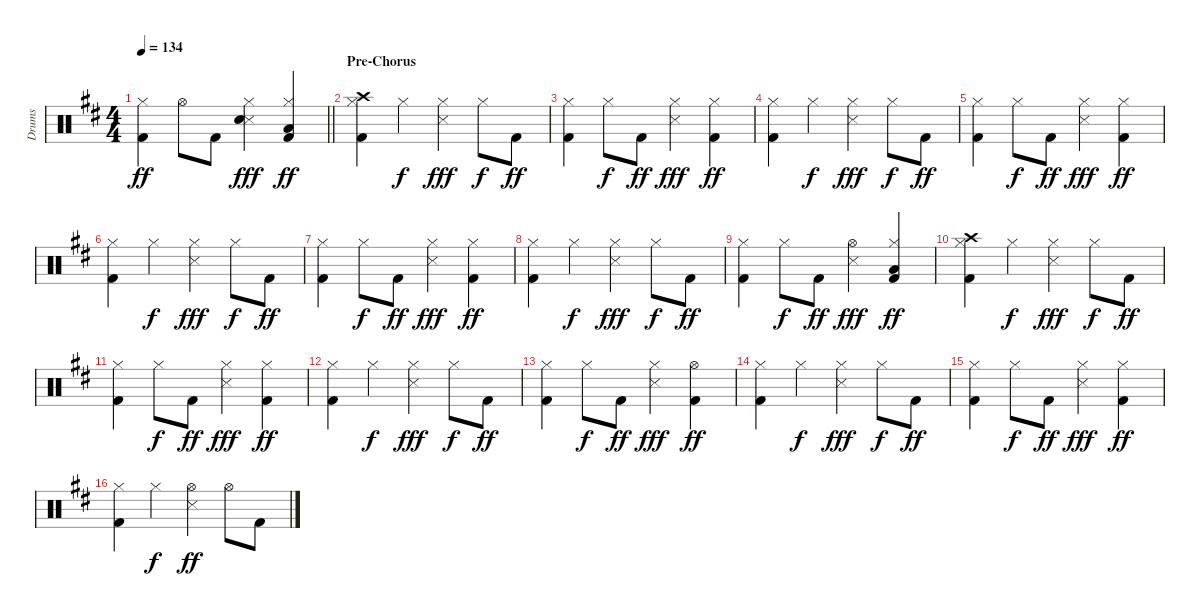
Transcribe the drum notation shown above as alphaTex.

\track ("Drums" "Drums") {instrument percussion}
\staff {score}
\articulation defaults
\ts (4 4)
\tempo 134
\clef neutral
\barLineRight lightlight
\ks d
("Kick (hit) 2" "Hi-Hat (closed)").4{dy ff} "Hi-Hat (open)".8 "Kick (hit) 2".8 ("Snare (side stick) 3" "Snare (hit) 2" "Hi-Hat (closed)").4{dy fff} ("Kick (hit) 2" "Hi-Hat (closed)" "Low Tom (hit)").4{dy ff} |
\section ("" "Pre-Chorus")
("Kick (hit) 2" "Hi-Hat (closed)" "Crash high (hit)").4 "Hi-Hat (closed)".4{dy f} ("Snare (side stick) 3" "Hi-Hat (closed)").4{dy fff} "Hi-Hat (closed)".8{dy f} "Kick (hit) 2".8{dy ff} |
("Kick (hit) 2" "Hi-Hat (closed)").4 "Hi-Hat (closed)".8{dy f} "Kick (hit) 2".8{dy ff} ("Snare (side stick) 3" "Hi-Hat (closed)").4{dy fff} ("Kick (hit) 2" "Hi-Hat (closed)").4{dy ff} |
("Kick (hit) 2" "Hi-Hat (closed)").4 "Hi-Hat (closed)".4{dy f} ("Snare (side stick) 3" "Hi-Hat (closed)").4{dy fff} "Hi-Hat (closed)".8{dy f} "Kick (hit) 2".8{dy ff} |
("Kick (hit) 2" "Hi-Hat (closed)").4 "Hi-Hat (closed)".8{dy f} "Kick (hit) 2".8{dy ff} ("Snare (side stick) 3" "Hi-Hat (closed)").4{dy fff} ("Kick (hit) 2" "Hi-Hat (closed)").4{dy ff} |
("Kick (hit) 2" "Hi-Hat (closed)").4 "Hi-Hat (closed)".4{dy f} ("Snare (side stick) 3" "Hi-Hat (closed)").4{dy fff} "Hi-Hat (closed)".8{dy f} "Kick (hit) 2".8{dy ff} |
("Kick (hit) 2" "Hi-Hat (closed)").4 "Hi-Hat (closed)".8{dy f} "Kick (hit) 2".8{dy ff} ("Snare (side stick) 3" "Hi-Hat (closed)").4{dy fff} ("Kick (hit) 2" "Hi-Hat (closed)").4{dy ff} |
("Kick (hit) 2" "Hi-Hat (closed)").4 "Hi-Hat (closed)".4{dy f} ("Snare (side stick) 3" "Hi-Hat (closed)").4{dy fff} "Hi-Hat (closed)".8{dy f} "Kick (hit) 2".8{dy ff} |
("Kick (hit) 2" "Hi-Hat (closed)").4 "Hi-Hat (closed)".8{dy f} "Kick (hit) 2".8{dy ff} ("Snare (side stick) 3" "Hi-Hat (open)").4{dy fff} ("Kick (hit) 2" "Hi-Hat (closed)" "Low Tom (hit)").4{dy ff} |
("Kick (hit) 2" "Hi-Hat (closed)" "Crash high (hit)").4 "Hi-Hat (closed)".4{dy f} ("Snare (side stick) 3" "Hi-Hat (closed)").4{dy fff} "Hi-Hat (closed)".8{dy f} "Kick (hit) 2".8{dy ff} |
("Kick (hit) 2" "Hi-Hat (closed)").4 "Hi-Hat (closed)".8{dy f} "Kick (hit) 2".8{dy ff} ("Snare (side stick) 3" "Hi-Hat (closed)").4{dy fff} ("Kick (hit) 2" "Hi-Hat (closed)").4{dy ff} |
("Kick (hit) 2" "Hi-Hat (closed)").4 "Hi-Hat (closed)".4{dy f} ("Snare (side stick) 3" "Hi-Hat (closed)").4{dy fff} "Hi-Hat (closed)".8{dy f} "Kick (hit) 2".8{dy ff} |
("Kick (hit) 2" "Hi-Hat (closed)").4 "Hi-Hat (closed)".8{dy f} "Kick (hit) 2".8{dy ff} ("Snare (side stick) 3" "Hi-Hat (closed)").4{dy fff} ("Kick (hit) 2" "Hi-Hat (open)").4{dy ff} |
("Kick (hit) 2" "Hi-Hat (closed)").4 "Hi-Hat (closed)".4{dy f} ("Snare (side stick) 3" "Hi-Hat (closed)").4{dy fff} "Hi-Hat (closed)".8{dy f} "Kick (hit) 2".8{dy ff} |
("Kick (hit) 2" "Hi-Hat (closed)").4 "Hi-Hat (closed)".8{dy f} "Kick (hit) 2".8{dy ff} ("Snare (side stick) 3" "Hi-Hat (closed)").4{dy fff} ("Kick (hit) 2" "Hi-Hat (closed)").4{dy ff} |
("Kick (hit) 2" "Hi-Hat (closed)").4 "Hi-Hat (closed)".4{dy f} ("Snare (side stick) 3" "Hi-Hat (open)").4{dy ff} "Hi-Hat (open)".8 "Kick (hit) 2".8
